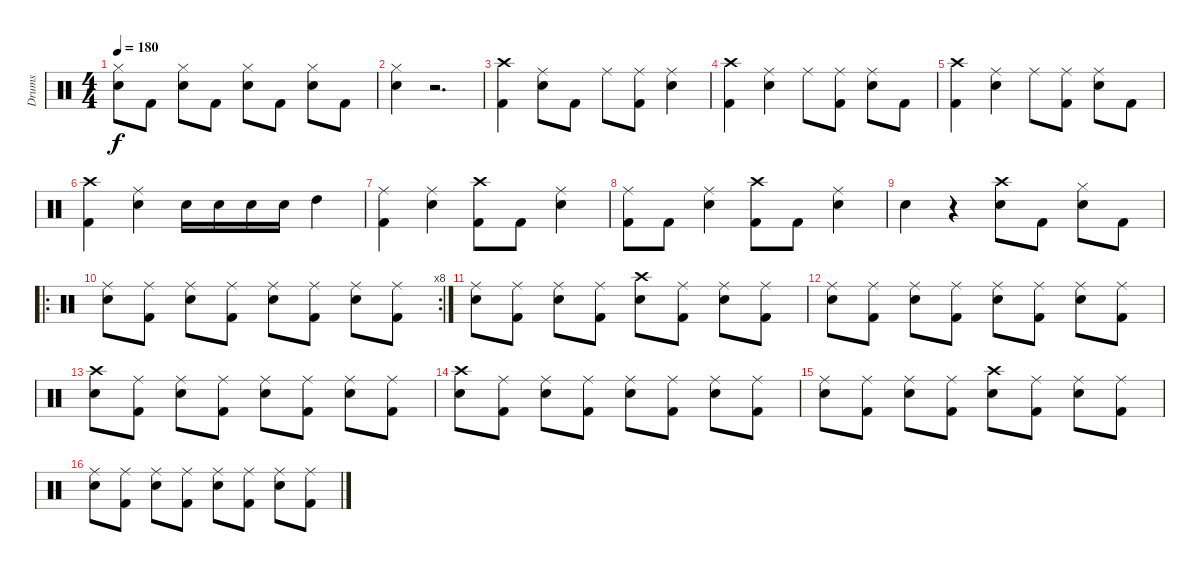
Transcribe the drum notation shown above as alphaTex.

\track ("Drums" "Drums") {instrument percussion}
\staff {score}
\articulation defaults
\ts (4 4)
\tempo 180
\clef neutral
\ks c
("Hi-Hat (closed)" "Electric Snare (hit)").8{dy f} "Kick (hit) 2".8 ("Hi-Hat (closed)" "Electric Snare (hit)").8 "Kick (hit) 2".8 ("Hi-Hat (closed)" "Electric Snare (hit)").8 "Kick (hit) 2".8 ("Hi-Hat (closed)" "Electric Snare (hit)").8 "Kick (hit) 2".8 |
("Hi-Hat (closed)" "Electric Snare (hit)").4 r.2{d} |
("Crash high (hit)" "Kick (hit) 2").4 ("Ride (middle)" "Electric Snare (hit)").8 "Kick (hit) 2".8 "Ride (middle)".8 ("Ride (middle)" "Kick (hit) 2").8 ("Ride (middle)" "Electric Snare (hit)").4 |
("Crash high (hit)" "Kick (hit) 2").4 ("Ride (middle)" "Electric Snare (hit)").4 "Ride (middle)".8 ("Ride (middle)" "Kick (hit) 2").8 ("Ride (middle)" "Electric Snare (hit)").8 "Kick (hit) 2".8 |
("Crash high (hit)" "Kick (hit) 2").4 ("Ride (middle)" "Electric Snare (hit)").4 "Ride (middle)".8 ("Ride (middle)" "Kick (hit) 2").8 ("Ride (middle)" "Electric Snare (hit)").8 "Kick (hit) 2".8 |
("Crash high (hit)" "Kick (hit) 2").4 ("Ride (middle)" "Electric Snare (hit)").4 "Electric Snare (hit)".16 "Electric Snare (hit)".16 "Electric Snare (hit)".16 "Electric Snare (hit)".16 "High Tom (hit)".4 |
("Ride (middle)" "Kick (hit) 2").4 ("Ride (middle)" "Electric Snare (hit)").4 ("Crash high (hit)" "Kick (hit) 2").8 "Kick (hit) 2".8 ("Ride (middle)" "Electric Snare (hit)").4 |
("Ride (middle)" "Kick (hit) 2").8 "Kick (hit) 2".8 ("Ride (middle)" "Electric Snare (hit)").4 ("Crash high (hit)" "Kick (hit) 2").8 "Kick (hit) 2".8 ("Ride (middle)" "Electric Snare (hit)").4 |
"Electric Snare (hit)".4 r.4 ("Crash high (hit)" "Electric Snare (hit)").8 "Kick (hit) 2".8 ("Hi-Hat (closed)" "Electric Snare (hit)").8 "Kick (hit) 2".8 |
\ro
\rc 8
("Ride (middle)" "Electric Snare (hit)").8 ("Ride (middle)" "Kick (hit) 2").8 ("Ride (middle)" "Electric Snare (hit)").8 ("Ride (middle)" "Kick (hit) 2").8 ("Ride (middle)" "Electric Snare (hit)").8 ("Ride (middle)" "Kick (hit) 2").8 ("Ride (middle)" "Electric Snare (hit)").8 ("Ride (middle)" "Kick (hit) 2").8 |
("Ride (middle)" "Electric Snare (hit)").8 ("Ride (middle)" "Kick (hit) 2").8 ("Ride (middle)" "Electric Snare (hit)").8 ("Ride (middle)" "Kick (hit) 2").8 ("Crash high (hit)" "Electric Snare (hit)").8 ("Ride (middle)" "Kick (hit) 2").8 ("Ride (middle)" "Electric Snare (hit)").8 ("Ride (middle)" "Kick (hit) 2").8 |
("Ride (middle)" "Electric Snare (hit)").8 ("Ride (middle)" "Kick (hit) 2").8 ("Ride (middle)" "Electric Snare (hit)").8 ("Ride (middle)" "Kick (hit) 2").8 ("Ride (middle)" "Electric Snare (hit)").8 ("Ride (middle)" "Kick (hit) 2").8 ("Ride (middle)" "Electric Snare (hit)").8 ("Ride (middle)" "Kick (hit) 2").8 |
("Crash high (hit)" "Electric Snare (hit)").8 ("Ride (middle)" "Kick (hit) 2").8 ("Ride (middle)" "Electric Snare (hit)").8 ("Ride (middle)" "Kick (hit) 2").8 ("Ride (middle)" "Electric Snare (hit)").8 ("Ride (middle)" "Kick (hit) 2").8 ("Ride (middle)" "Electric Snare (hit)").8 ("Ride (middle)" "Kick (hit) 2").8 |
("Crash high (hit)" "Electric Snare (hit)").8 ("Ride (middle)" "Kick (hit) 2").8 ("Ride (middle)" "Electric Snare (hit)").8 ("Ride (middle)" "Kick (hit) 2").8 ("Ride (middle)" "Electric Snare (hit)").8 ("Ride (middle)" "Kick (hit) 2").8 ("Ride (middle)" "Electric Snare (hit)").8 ("Ride (middle)" "Kick (hit) 2").8 |
("Ride (middle)" "Electric Snare (hit)").8 ("Ride (middle)" "Kick (hit) 2").8 ("Ride (middle)" "Electric Snare (hit)").8 ("Ride (middle)" "Kick (hit) 2").8 ("Crash high (hit)" "Electric Snare (hit)").8 ("Ride (middle)" "Kick (hit) 2").8 ("Ride (middle)" "Electric Snare (hit)").8 ("Ride (middle)" "Kick (hit) 2").8 |
("Ride (middle)" "Electric Snare (hit)").8 ("Ride (middle)" "Kick (hit) 2").8 ("Ride (middle)" "Electric Snare (hit)").8 ("Ride (middle)" "Kick (hit) 2").8 ("Ride (middle)" "Electric Snare (hit)").8 ("Ride (middle)" "Kick (hit) 2").8 ("Ride (middle)" "Electric Snare (hit)").8 ("Ride (middle)" "Kick (hit) 2").8
